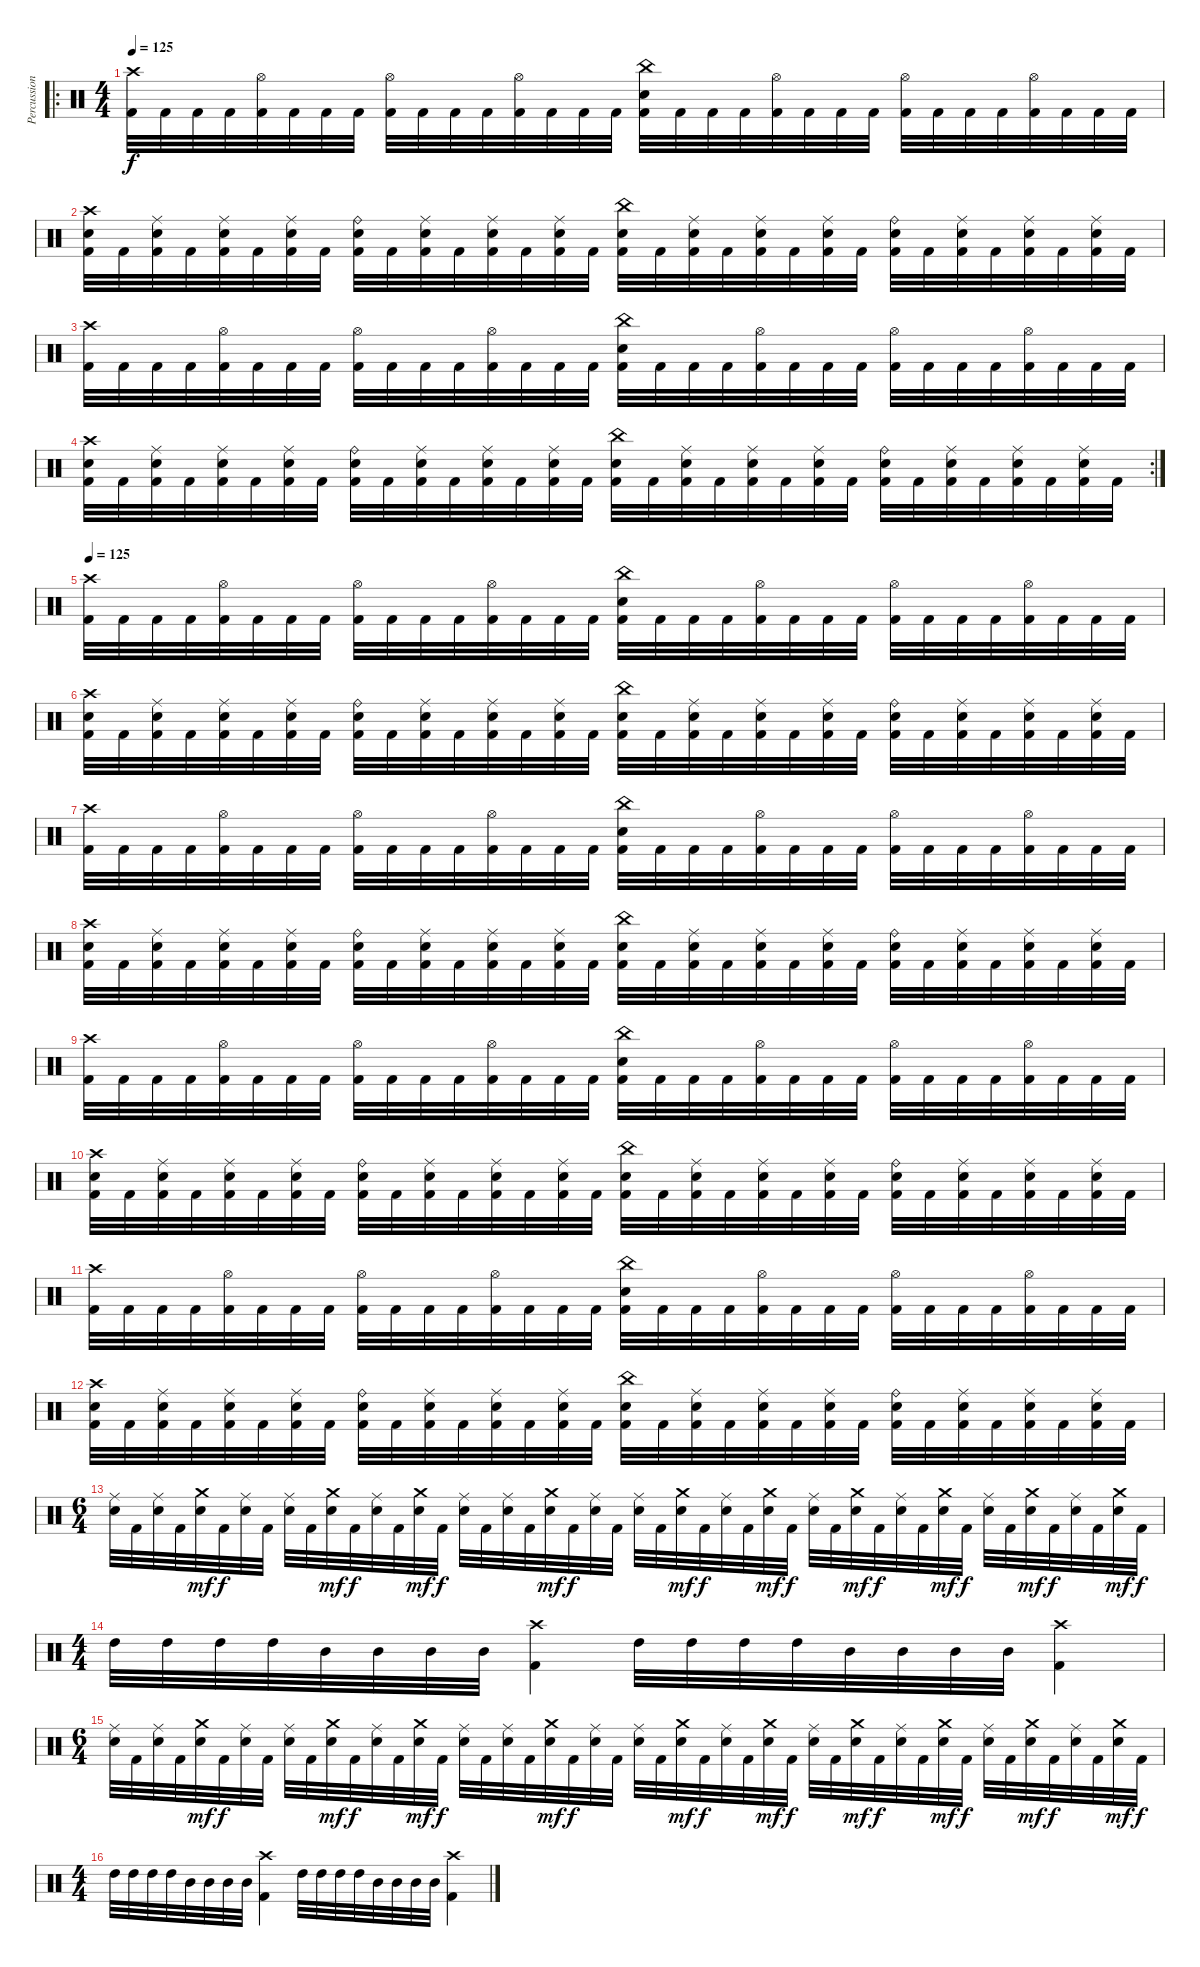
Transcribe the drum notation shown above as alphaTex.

\track ("Percussion" "Percussion") {instrument percussion}
\staff {score}
\articulation defaults
\ro
\ts (4 4)
\tempo 125
\clef neutral
\ks c
("Crash high (hit)" "Kick (hit) 2").32{dy f} "Kick (hit) 2".32 "Kick (hit) 2".32 "Kick (hit) 2".32 ("Hi-Hat (open)" "Kick (hit) 2").32 "Kick (hit) 2".32 "Kick (hit) 2".32 "Kick (hit) 2".32 ("Hi-Hat (open)" "Kick (hit) 2").32 "Kick (hit) 2".32 "Kick (hit) 2".32 "Kick (hit) 2".32 ("Hi-Hat (open)" "Kick (hit) 2").32 "Kick (hit) 2".32 "Kick (hit) 2".32 "Kick (hit) 2".32 ("China (hit)" "Electric Snare (hit)" "Kick (hit) 2").32 "Kick (hit) 2".32 "Kick (hit) 2".32 "Kick (hit) 2".32 ("Hi-Hat (open)" "Kick (hit) 2").32 "Kick (hit) 2".32 "Kick (hit) 2".32 "Kick (hit) 2".32 ("Hi-Hat (open)" "Kick (hit) 2").32 "Kick (hit) 2".32 "Kick (hit) 2".32 "Kick (hit) 2".32 ("Hi-Hat (open)" "Kick (hit) 2").32 "Kick (hit) 2".32 "Kick (hit) 2".32 "Kick (hit) 2".32 |
("Crash high (hit)" "Electric Snare (hit)" "Kick (hit) 2").32 "Kick (hit) 2".32 ("Ride (middle)" "Electric Snare (hit)" "Kick (hit) 2").32 "Kick (hit) 2".32 ("Ride (middle)" "Electric Snare (hit)" "Kick (hit) 2").32 "Kick (hit) 2".32 ("Ride (middle)" "Electric Snare (hit)" "Kick (hit) 2").32 "Kick (hit) 2".32 ("Ride (bell)" "Electric Snare (hit)" "Kick (hit) 2").32 "Kick (hit) 2".32 ("Ride (middle)" "Electric Snare (hit)" "Kick (hit) 2").32 "Kick (hit) 2".32 ("Ride (middle)" "Electric Snare (hit)" "Kick (hit) 2").32 "Kick (hit) 2".32 ("Ride (middle)" "Electric Snare (hit)" "Kick (hit) 2").32 "Kick (hit) 2".32 ("China (hit)" "Electric Snare (hit)" "Kick (hit) 2").32 "Kick (hit) 2".32 ("Ride (middle)" "Electric Snare (hit)" "Kick (hit) 2").32 "Kick (hit) 2".32 ("Ride (middle)" "Electric Snare (hit)" "Kick (hit) 2").32 "Kick (hit) 2".32 ("Ride (middle)" "Electric Snare (hit)" "Kick (hit) 2").32 "Kick (hit) 2".32 ("Ride (bell)" "Electric Snare (hit)" "Kick (hit) 2").32 "Kick (hit) 2".32 ("Ride (middle)" "Electric Snare (hit)" "Kick (hit) 2").32 "Kick (hit) 2".32 ("Ride (middle)" "Electric Snare (hit)" "Kick (hit) 2").32 "Kick (hit) 2".32 ("Ride (middle)" "Electric Snare (hit)" "Kick (hit) 2").32 "Kick (hit) 2".32 |
("Crash high (hit)" "Kick (hit) 2").32 "Kick (hit) 2".32 "Kick (hit) 2".32 "Kick (hit) 2".32 ("Hi-Hat (open)" "Kick (hit) 2").32 "Kick (hit) 2".32 "Kick (hit) 2".32 "Kick (hit) 2".32 ("Hi-Hat (open)" "Kick (hit) 2").32 "Kick (hit) 2".32 "Kick (hit) 2".32 "Kick (hit) 2".32 ("Hi-Hat (open)" "Kick (hit) 2").32 "Kick (hit) 2".32 "Kick (hit) 2".32 "Kick (hit) 2".32 ("China (hit)" "Electric Snare (hit)" "Kick (hit) 2").32 "Kick (hit) 2".32 "Kick (hit) 2".32 "Kick (hit) 2".32 ("Hi-Hat (open)" "Kick (hit) 2").32 "Kick (hit) 2".32 "Kick (hit) 2".32 "Kick (hit) 2".32 ("Hi-Hat (open)" "Kick (hit) 2").32 "Kick (hit) 2".32 "Kick (hit) 2".32 "Kick (hit) 2".32 ("Hi-Hat (open)" "Kick (hit) 2").32 "Kick (hit) 2".32 "Kick (hit) 2".32 "Kick (hit) 2".32 |
\rc 2
("Crash high (hit)" "Electric Snare (hit)" "Kick (hit) 2").32 "Kick (hit) 2".32 ("Ride (middle)" "Electric Snare (hit)" "Kick (hit) 2").32 "Kick (hit) 2".32 ("Ride (middle)" "Electric Snare (hit)" "Kick (hit) 2").32 "Kick (hit) 2".32 ("Ride (middle)" "Electric Snare (hit)" "Kick (hit) 2").32 "Kick (hit) 2".32 ("Ride (bell)" "Electric Snare (hit)" "Kick (hit) 2").32 "Kick (hit) 2".32 ("Ride (middle)" "Electric Snare (hit)" "Kick (hit) 2").32 "Kick (hit) 2".32 ("Ride (middle)" "Electric Snare (hit)" "Kick (hit) 2").32 "Kick (hit) 2".32 ("Ride (middle)" "Electric Snare (hit)" "Kick (hit) 2").32 "Kick (hit) 2".32 ("China (hit)" "Electric Snare (hit)" "Kick (hit) 2").32 "Kick (hit) 2".32 ("Ride (middle)" "Electric Snare (hit)" "Kick (hit) 2").32 "Kick (hit) 2".32 ("Ride (middle)" "Electric Snare (hit)" "Kick (hit) 2").32 "Kick (hit) 2".32 ("Ride (middle)" "Electric Snare (hit)" "Kick (hit) 2").32 "Kick (hit) 2".32 ("Ride (bell)" "Electric Snare (hit)" "Kick (hit) 2").32 "Kick (hit) 2".32 ("Ride (middle)" "Electric Snare (hit)" "Kick (hit) 2").32 "Kick (hit) 2".32 ("Ride (middle)" "Electric Snare (hit)" "Kick (hit) 2").32 "Kick (hit) 2".32 ("Ride (middle)" "Electric Snare (hit)" "Kick (hit) 2").32 "Kick (hit) 2".32 |
\tempo 125
("Crash high (hit)" "Kick (hit) 2").32 "Kick (hit) 2".32 "Kick (hit) 2".32 "Kick (hit) 2".32 ("Hi-Hat (open)" "Kick (hit) 2").32 "Kick (hit) 2".32 "Kick (hit) 2".32 "Kick (hit) 2".32 ("Hi-Hat (open)" "Kick (hit) 2").32 "Kick (hit) 2".32 "Kick (hit) 2".32 "Kick (hit) 2".32 ("Hi-Hat (open)" "Kick (hit) 2").32 "Kick (hit) 2".32 "Kick (hit) 2".32 "Kick (hit) 2".32 ("China (hit)" "Electric Snare (hit)" "Kick (hit) 2").32 "Kick (hit) 2".32 "Kick (hit) 2".32 "Kick (hit) 2".32 ("Hi-Hat (open)" "Kick (hit) 2").32 "Kick (hit) 2".32 "Kick (hit) 2".32 "Kick (hit) 2".32 ("Hi-Hat (open)" "Kick (hit) 2").32 "Kick (hit) 2".32 "Kick (hit) 2".32 "Kick (hit) 2".32 ("Hi-Hat (open)" "Kick (hit) 2").32 "Kick (hit) 2".32 "Kick (hit) 2".32 "Kick (hit) 2".32 |
("Crash high (hit)" "Electric Snare (hit)" "Kick (hit) 2").32 "Kick (hit) 2".32 ("Ride (middle)" "Electric Snare (hit)" "Kick (hit) 2").32 "Kick (hit) 2".32 ("Ride (middle)" "Electric Snare (hit)" "Kick (hit) 2").32 "Kick (hit) 2".32 ("Ride (middle)" "Electric Snare (hit)" "Kick (hit) 2").32 "Kick (hit) 2".32 ("Ride (bell)" "Electric Snare (hit)" "Kick (hit) 2").32 "Kick (hit) 2".32 ("Ride (middle)" "Electric Snare (hit)" "Kick (hit) 2").32 "Kick (hit) 2".32 ("Ride (middle)" "Electric Snare (hit)" "Kick (hit) 2").32 "Kick (hit) 2".32 ("Ride (middle)" "Electric Snare (hit)" "Kick (hit) 2").32 "Kick (hit) 2".32 ("China (hit)" "Electric Snare (hit)" "Kick (hit) 2").32 "Kick (hit) 2".32 ("Ride (middle)" "Electric Snare (hit)" "Kick (hit) 2").32 "Kick (hit) 2".32 ("Ride (middle)" "Electric Snare (hit)" "Kick (hit) 2").32 "Kick (hit) 2".32 ("Ride (middle)" "Electric Snare (hit)" "Kick (hit) 2").32 "Kick (hit) 2".32 ("Ride (bell)" "Electric Snare (hit)" "Kick (hit) 2").32 "Kick (hit) 2".32 ("Ride (middle)" "Electric Snare (hit)" "Kick (hit) 2").32 "Kick (hit) 2".32 ("Ride (middle)" "Electric Snare (hit)" "Kick (hit) 2").32 "Kick (hit) 2".32 ("Ride (middle)" "Electric Snare (hit)" "Kick (hit) 2").32 "Kick (hit) 2".32 |
("Crash high (hit)" "Kick (hit) 2").32 "Kick (hit) 2".32 "Kick (hit) 2".32 "Kick (hit) 2".32 ("Hi-Hat (open)" "Kick (hit) 2").32 "Kick (hit) 2".32 "Kick (hit) 2".32 "Kick (hit) 2".32 ("Hi-Hat (open)" "Kick (hit) 2").32 "Kick (hit) 2".32 "Kick (hit) 2".32 "Kick (hit) 2".32 ("Hi-Hat (open)" "Kick (hit) 2").32 "Kick (hit) 2".32 "Kick (hit) 2".32 "Kick (hit) 2".32 ("China (hit)" "Electric Snare (hit)" "Kick (hit) 2").32 "Kick (hit) 2".32 "Kick (hit) 2".32 "Kick (hit) 2".32 ("Hi-Hat (open)" "Kick (hit) 2").32 "Kick (hit) 2".32 "Kick (hit) 2".32 "Kick (hit) 2".32 ("Hi-Hat (open)" "Kick (hit) 2").32 "Kick (hit) 2".32 "Kick (hit) 2".32 "Kick (hit) 2".32 ("Hi-Hat (open)" "Kick (hit) 2").32 "Kick (hit) 2".32 "Kick (hit) 2".32 "Kick (hit) 2".32 |
("Crash high (hit)" "Electric Snare (hit)" "Kick (hit) 2").32 "Kick (hit) 2".32 ("Ride (middle)" "Electric Snare (hit)" "Kick (hit) 2").32 "Kick (hit) 2".32 ("Ride (middle)" "Electric Snare (hit)" "Kick (hit) 2").32 "Kick (hit) 2".32 ("Ride (middle)" "Electric Snare (hit)" "Kick (hit) 2").32 "Kick (hit) 2".32 ("Ride (bell)" "Electric Snare (hit)" "Kick (hit) 2").32 "Kick (hit) 2".32 ("Ride (middle)" "Electric Snare (hit)" "Kick (hit) 2").32 "Kick (hit) 2".32 ("Ride (middle)" "Electric Snare (hit)" "Kick (hit) 2").32 "Kick (hit) 2".32 ("Ride (middle)" "Electric Snare (hit)" "Kick (hit) 2").32 "Kick (hit) 2".32 ("China (hit)" "Electric Snare (hit)" "Kick (hit) 2").32 "Kick (hit) 2".32 ("Ride (middle)" "Electric Snare (hit)" "Kick (hit) 2").32 "Kick (hit) 2".32 ("Ride (middle)" "Electric Snare (hit)" "Kick (hit) 2").32 "Kick (hit) 2".32 ("Ride (middle)" "Electric Snare (hit)" "Kick (hit) 2").32 "Kick (hit) 2".32 ("Ride (bell)" "Electric Snare (hit)" "Kick (hit) 2").32 "Kick (hit) 2".32 ("Ride (middle)" "Electric Snare (hit)" "Kick (hit) 2").32 "Kick (hit) 2".32 ("Ride (middle)" "Electric Snare (hit)" "Kick (hit) 2").32 "Kick (hit) 2".32 ("Ride (middle)" "Electric Snare (hit)" "Kick (hit) 2").32 "Kick (hit) 2".32 |
("Crash high (hit)" "Kick (hit) 2").32 "Kick (hit) 2".32 "Kick (hit) 2".32 "Kick (hit) 2".32 ("Hi-Hat (open)" "Kick (hit) 2").32 "Kick (hit) 2".32 "Kick (hit) 2".32 "Kick (hit) 2".32 ("Hi-Hat (open)" "Kick (hit) 2").32 "Kick (hit) 2".32 "Kick (hit) 2".32 "Kick (hit) 2".32 ("Hi-Hat (open)" "Kick (hit) 2").32 "Kick (hit) 2".32 "Kick (hit) 2".32 "Kick (hit) 2".32 ("China (hit)" "Electric Snare (hit)" "Kick (hit) 2").32 "Kick (hit) 2".32 "Kick (hit) 2".32 "Kick (hit) 2".32 ("Hi-Hat (open)" "Kick (hit) 2").32 "Kick (hit) 2".32 "Kick (hit) 2".32 "Kick (hit) 2".32 ("Hi-Hat (open)" "Kick (hit) 2").32 "Kick (hit) 2".32 "Kick (hit) 2".32 "Kick (hit) 2".32 ("Hi-Hat (open)" "Kick (hit) 2").32 "Kick (hit) 2".32 "Kick (hit) 2".32 "Kick (hit) 2".32 |
("Crash high (hit)" "Electric Snare (hit)" "Kick (hit) 2").32 "Kick (hit) 2".32 ("Ride (middle)" "Electric Snare (hit)" "Kick (hit) 2").32 "Kick (hit) 2".32 ("Ride (middle)" "Electric Snare (hit)" "Kick (hit) 2").32 "Kick (hit) 2".32 ("Ride (middle)" "Electric Snare (hit)" "Kick (hit) 2").32 "Kick (hit) 2".32 ("Ride (bell)" "Electric Snare (hit)" "Kick (hit) 2").32 "Kick (hit) 2".32 ("Ride (middle)" "Electric Snare (hit)" "Kick (hit) 2").32 "Kick (hit) 2".32 ("Ride (middle)" "Electric Snare (hit)" "Kick (hit) 2").32 "Kick (hit) 2".32 ("Ride (middle)" "Electric Snare (hit)" "Kick (hit) 2").32 "Kick (hit) 2".32 ("China (hit)" "Electric Snare (hit)" "Kick (hit) 2").32 "Kick (hit) 2".32 ("Ride (middle)" "Electric Snare (hit)" "Kick (hit) 2").32 "Kick (hit) 2".32 ("Ride (middle)" "Electric Snare (hit)" "Kick (hit) 2").32 "Kick (hit) 2".32 ("Ride (middle)" "Electric Snare (hit)" "Kick (hit) 2").32 "Kick (hit) 2".32 ("Ride (bell)" "Electric Snare (hit)" "Kick (hit) 2").32 "Kick (hit) 2".32 ("Ride (middle)" "Electric Snare (hit)" "Kick (hit) 2").32 "Kick (hit) 2".32 ("Ride (middle)" "Electric Snare (hit)" "Kick (hit) 2").32 "Kick (hit) 2".32 ("Ride (middle)" "Electric Snare (hit)" "Kick (hit) 2").32 "Kick (hit) 2".32 |
("Crash high (hit)" "Kick (hit) 2").32 "Kick (hit) 2".32 "Kick (hit) 2".32 "Kick (hit) 2".32 ("Hi-Hat (open)" "Kick (hit) 2").32 "Kick (hit) 2".32 "Kick (hit) 2".32 "Kick (hit) 2".32 ("Hi-Hat (open)" "Kick (hit) 2").32 "Kick (hit) 2".32 "Kick (hit) 2".32 "Kick (hit) 2".32 ("Hi-Hat (open)" "Kick (hit) 2").32 "Kick (hit) 2".32 "Kick (hit) 2".32 "Kick (hit) 2".32 ("China (hit)" "Electric Snare (hit)" "Kick (hit) 2").32 "Kick (hit) 2".32 "Kick (hit) 2".32 "Kick (hit) 2".32 ("Hi-Hat (open)" "Kick (hit) 2").32 "Kick (hit) 2".32 "Kick (hit) 2".32 "Kick (hit) 2".32 ("Hi-Hat (open)" "Kick (hit) 2").32 "Kick (hit) 2".32 "Kick (hit) 2".32 "Kick (hit) 2".32 ("Hi-Hat (open)" "Kick (hit) 2").32 "Kick (hit) 2".32 "Kick (hit) 2".32 "Kick (hit) 2".32 |
("Crash high (hit)" "Electric Snare (hit)" "Kick (hit) 2").32 "Kick (hit) 2".32 ("Ride (middle)" "Electric Snare (hit)" "Kick (hit) 2").32 "Kick (hit) 2".32 ("Ride (middle)" "Electric Snare (hit)" "Kick (hit) 2").32 "Kick (hit) 2".32 ("Ride (middle)" "Electric Snare (hit)" "Kick (hit) 2").32 "Kick (hit) 2".32 ("Ride (bell)" "Electric Snare (hit)" "Kick (hit) 2").32 "Kick (hit) 2".32 ("Ride (middle)" "Electric Snare (hit)" "Kick (hit) 2").32 "Kick (hit) 2".32 ("Ride (middle)" "Electric Snare (hit)" "Kick (hit) 2").32 "Kick (hit) 2".32 ("Ride (middle)" "Electric Snare (hit)" "Kick (hit) 2").32 "Kick (hit) 2".32 ("China (hit)" "Electric Snare (hit)" "Kick (hit) 2").32 "Kick (hit) 2".32 ("Ride (middle)" "Electric Snare (hit)" "Kick (hit) 2").32 "Kick (hit) 2".32 ("Ride (middle)" "Electric Snare (hit)" "Kick (hit) 2").32 "Kick (hit) 2".32 ("Ride (middle)" "Electric Snare (hit)" "Kick (hit) 2").32 "Kick (hit) 2".32 ("Ride (bell)" "Electric Snare (hit)" "Kick (hit) 2").32 "Kick (hit) 2".32 ("Ride (middle)" "Electric Snare (hit)" "Kick (hit) 2").32 "Kick (hit) 2".32 ("Ride (middle)" "Electric Snare (hit)" "Kick (hit) 2").32 "Kick (hit) 2".32 ("Ride (middle)" "Electric Snare (hit)" "Kick (hit) 2").32 "Kick (hit) 2".32 |
\ts (6 4)
("Electric Snare (hit)" "Ride (middle)").32 "Kick (hit) 2".32 ("Electric Snare (hit)" "Ride (middle)").32 "Kick (hit) 2".32 ("Electric Snare (hit)" "Crash medium (hit)").32{dy mf} "Kick (hit) 2".32{dy f} ("Electric Snare (hit)" "Ride (middle)").32 "Kick (hit) 2".32 ("Electric Snare (hit)" "Ride (middle)").32 "Kick (hit) 2".32 ("Electric Snare (hit)" "Crash medium (hit)").32{dy mf} "Kick (hit) 2".32{dy f} ("Electric Snare (hit)" "Ride (middle)").32 "Kick (hit) 2".32 ("Electric Snare (hit)" "Crash medium (hit)").32{dy mf} "Kick (hit) 2".32{dy f} ("Electric Snare (hit)" "Ride (middle)").32 "Kick (hit) 2".32 ("Electric Snare (hit)" "Ride (middle)").32 "Kick (hit) 2".32 ("Electric Snare (hit)" "Crash medium (hit)").32{dy mf} "Kick (hit) 2".32{dy f} ("Electric Snare (hit)" "Ride (middle)").32 "Kick (hit) 2".32 ("Electric Snare (hit)" "Ride (middle)").32 "Kick (hit) 2".32 ("Electric Snare (hit)" "Crash medium (hit)").32{dy mf} "Kick (hit) 2".32{dy f} ("Electric Snare (hit)" "Ride (middle)").32 "Kick (hit) 2".32 ("Electric Snare (hit)" "Crash medium (hit)").32{dy mf} "Kick (hit) 2".32{dy f} ("Electric Snare (hit)" "Ride (middle)").32 "Kick (hit) 2".32 ("Electric Snare (hit)" "Crash medium (hit)").32{dy mf} "Kick (hit) 2".32{dy f} ("Electric Snare (hit)" "Ride (middle)").32 "Kick (hit) 2".32 ("Electric Snare (hit)" "Crash medium (hit)").32{dy mf} "Kick (hit) 2".32{dy f} ("Electric Snare (hit)" "Ride (middle)").32 "Kick (hit) 2".32 ("Electric Snare (hit)" "Crash medium (hit)").32{dy mf} "Kick (hit) 2".32{dy f} ("Electric Snare (hit)" "Ride (middle)").32 "Kick (hit) 2".32 ("Electric Snare (hit)" "Crash medium (hit)").32{dy mf} "Kick (hit) 2".32{dy f} |
\ts (4 4)
"High Tom (hit)".32 "High Tom (hit)".32 "High Tom (hit)".32 "High Tom (hit)".32 "Mid Tom (hit)".32 "Mid Tom (hit)".32 "Mid Tom (hit)".32 "Mid Tom (hit)".32 ("Crash high (hit)" "Kick (hit) 2").4 "High Tom (hit)".32 "High Tom (hit)".32 "High Tom (hit)".32 "High Tom (hit)".32 "Mid Tom (hit)".32 "Mid Tom (hit)".32 "Mid Tom (hit)".32 "Mid Tom (hit)".32 ("Crash high (hit)" "Kick (hit) 2").4 |
\ts (6 4)
("Electric Snare (hit)" "Ride (middle)").32 "Kick (hit) 2".32 ("Electric Snare (hit)" "Ride (middle)").32 "Kick (hit) 2".32 ("Electric Snare (hit)" "Crash medium (hit)").32{dy mf} "Kick (hit) 2".32{dy f} ("Electric Snare (hit)" "Ride (middle)").32 "Kick (hit) 2".32 ("Electric Snare (hit)" "Ride (middle)").32 "Kick (hit) 2".32 ("Electric Snare (hit)" "Crash medium (hit)").32{dy mf} "Kick (hit) 2".32{dy f} ("Electric Snare (hit)" "Ride (middle)").32 "Kick (hit) 2".32 ("Electric Snare (hit)" "Crash medium (hit)").32{dy mf} "Kick (hit) 2".32{dy f} ("Electric Snare (hit)" "Ride (middle)").32 "Kick (hit) 2".32 ("Electric Snare (hit)" "Ride (middle)").32 "Kick (hit) 2".32 ("Electric Snare (hit)" "Crash medium (hit)").32{dy mf} "Kick (hit) 2".32{dy f} ("Electric Snare (hit)" "Ride (middle)").32 "Kick (hit) 2".32 ("Electric Snare (hit)" "Ride (middle)").32 "Kick (hit) 2".32 ("Electric Snare (hit)" "Crash medium (hit)").32{dy mf} "Kick (hit) 2".32{dy f} ("Electric Snare (hit)" "Ride (middle)").32 "Kick (hit) 2".32 ("Electric Snare (hit)" "Crash medium (hit)").32{dy mf} "Kick (hit) 2".32{dy f} ("Electric Snare (hit)" "Ride (middle)").32 "Kick (hit) 2".32 ("Electric Snare (hit)" "Crash medium (hit)").32{dy mf} "Kick (hit) 2".32{dy f} ("Electric Snare (hit)" "Ride (middle)").32 "Kick (hit) 2".32 ("Electric Snare (hit)" "Crash medium (hit)").32{dy mf} "Kick (hit) 2".32{dy f} ("Electric Snare (hit)" "Ride (middle)").32 "Kick (hit) 2".32 ("Electric Snare (hit)" "Crash medium (hit)").32{dy mf} "Kick (hit) 2".32{dy f} ("Electric Snare (hit)" "Ride (middle)").32 "Kick (hit) 2".32 ("Electric Snare (hit)" "Crash medium (hit)").32{dy mf} "Kick (hit) 2".32{dy f} |
\ts (4 4)
"High Tom (hit)".32 "High Tom (hit)".32 "High Tom (hit)".32 "High Tom (hit)".32 "Mid Tom (hit)".32 "Mid Tom (hit)".32 "Mid Tom (hit)".32 "Mid Tom (hit)".32 ("Crash high (hit)" "Kick (hit) 2").4 "High Tom (hit)".32 "High Tom (hit)".32 "High Tom (hit)".32 "High Tom (hit)".32 "Mid Tom (hit)".32 "Mid Tom (hit)".32 "Mid Tom (hit)".32 "Mid Tom (hit)".32 ("Crash high (hit)" "Kick (hit) 2").4
